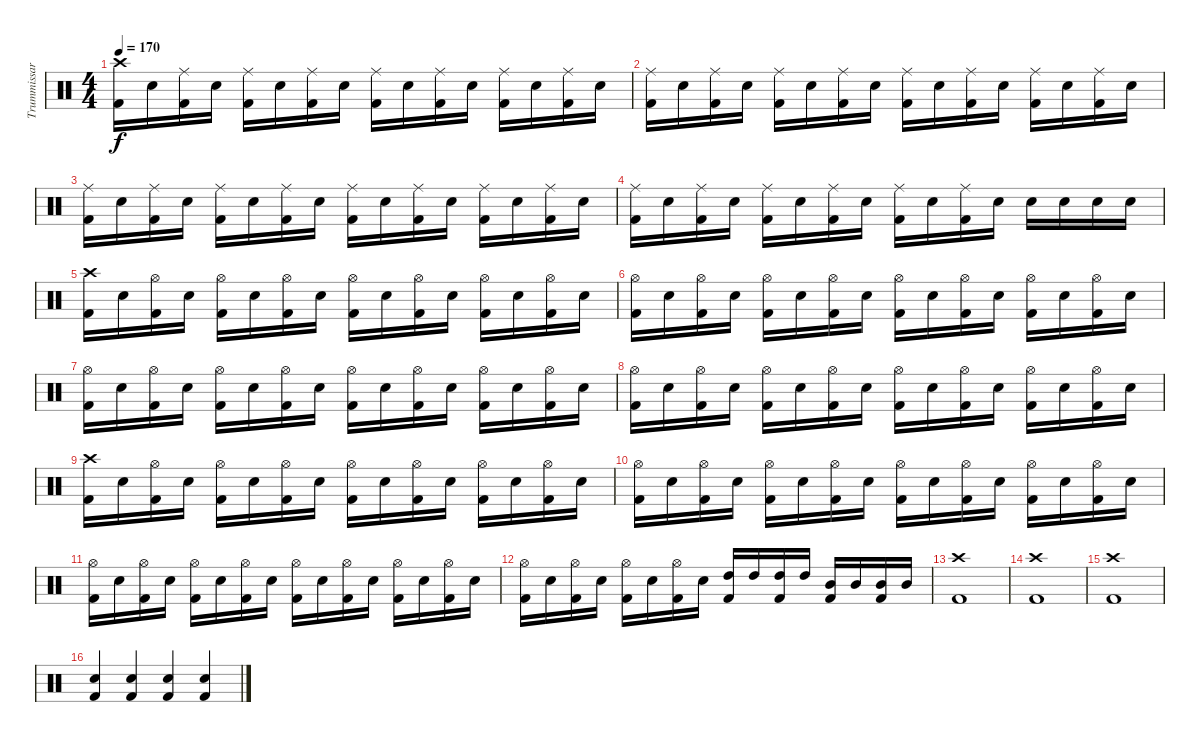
\track ("Trummissar!!" "Trummissar") {instrument percussion}
\staff {score}
\articulation defaults
\ts (4 4)
\tempo 170
\clef neutral
\ks c
("Crash high (hit)" "Kick (hit) 2").16{dy f} "Electric Snare (hit)".16 ("Ride (middle)" "Kick (hit) 2").16 "Electric Snare (hit)".16 ("Ride (middle)" "Kick (hit) 2").16 "Electric Snare (hit)".16 ("Ride (middle)" "Kick (hit) 2").16 "Electric Snare (hit)".16 ("Ride (middle)" "Kick (hit) 2").16 "Electric Snare (hit)".16 ("Ride (middle)" "Kick (hit) 2").16 "Electric Snare (hit)".16 ("Ride (middle)" "Kick (hit) 2").16 "Electric Snare (hit)".16 ("Ride (middle)" "Kick (hit) 2").16 "Electric Snare (hit)".16 |
("Ride (middle)" "Kick (hit) 2").16 "Electric Snare (hit)".16 ("Ride (middle)" "Kick (hit) 2").16 "Electric Snare (hit)".16 ("Ride (middle)" "Kick (hit) 2").16 "Electric Snare (hit)".16 ("Ride (middle)" "Kick (hit) 2").16 "Electric Snare (hit)".16 ("Ride (middle)" "Kick (hit) 2").16 "Electric Snare (hit)".16 ("Ride (middle)" "Kick (hit) 2").16 "Electric Snare (hit)".16 ("Ride (middle)" "Kick (hit) 2").16 "Electric Snare (hit)".16 ("Ride (middle)" "Kick (hit) 2").16 "Electric Snare (hit)".16 |
("Ride (middle)" "Kick (hit) 2").16 "Electric Snare (hit)".16 ("Ride (middle)" "Kick (hit) 2").16 "Electric Snare (hit)".16 ("Ride (middle)" "Kick (hit) 2").16 "Electric Snare (hit)".16 ("Ride (middle)" "Kick (hit) 2").16 "Electric Snare (hit)".16 ("Ride (middle)" "Kick (hit) 2").16 "Electric Snare (hit)".16 ("Ride (middle)" "Kick (hit) 2").16 "Electric Snare (hit)".16 ("Ride (middle)" "Kick (hit) 2").16 "Electric Snare (hit)".16 ("Ride (middle)" "Kick (hit) 2").16 "Electric Snare (hit)".16 |
("Ride (middle)" "Kick (hit) 2").16 "Electric Snare (hit)".16 ("Ride (middle)" "Kick (hit) 2").16 "Electric Snare (hit)".16 ("Ride (middle)" "Kick (hit) 2").16 "Electric Snare (hit)".16 ("Ride (middle)" "Kick (hit) 2").16 "Electric Snare (hit)".16 ("Ride (middle)" "Kick (hit) 2").16 "Electric Snare (hit)".16 ("Ride (middle)" "Kick (hit) 2").16 "Electric Snare (hit)".16 "Electric Snare (hit)".16 "Electric Snare (hit)".16 "Electric Snare (hit)".16 "Electric Snare (hit)".16 |
("Crash high (hit)" "Kick (hit) 2").16 "Electric Snare (hit)".16 ("Hi-Hat (open)" "Kick (hit) 2").16 "Electric Snare (hit)".16 ("Hi-Hat (open)" "Kick (hit) 2").16 "Electric Snare (hit)".16 ("Hi-Hat (open)" "Kick (hit) 2").16 "Electric Snare (hit)".16 ("Hi-Hat (open)" "Kick (hit) 2").16 "Electric Snare (hit)".16 ("Hi-Hat (open)" "Kick (hit) 2").16 "Electric Snare (hit)".16 ("Hi-Hat (open)" "Kick (hit) 2").16 "Electric Snare (hit)".16 ("Hi-Hat (open)" "Kick (hit) 2").16 "Electric Snare (hit)".16 |
("Hi-Hat (open)" "Kick (hit) 2").16 "Electric Snare (hit)".16 ("Hi-Hat (open)" "Kick (hit) 2").16 "Electric Snare (hit)".16 ("Hi-Hat (open)" "Kick (hit) 2").16 "Electric Snare (hit)".16 ("Hi-Hat (open)" "Kick (hit) 2").16 "Electric Snare (hit)".16 ("Hi-Hat (open)" "Kick (hit) 2").16 "Electric Snare (hit)".16 ("Hi-Hat (open)" "Kick (hit) 2").16 "Electric Snare (hit)".16 ("Hi-Hat (open)" "Kick (hit) 2").16 "Electric Snare (hit)".16 ("Hi-Hat (open)" "Kick (hit) 2").16 "Electric Snare (hit)".16 |
("Hi-Hat (open)" "Kick (hit) 2").16 "Electric Snare (hit)".16 ("Hi-Hat (open)" "Kick (hit) 2").16 "Electric Snare (hit)".16 ("Hi-Hat (open)" "Kick (hit) 2").16 "Electric Snare (hit)".16 ("Hi-Hat (open)" "Kick (hit) 2").16 "Electric Snare (hit)".16 ("Hi-Hat (open)" "Kick (hit) 2").16 "Electric Snare (hit)".16 ("Hi-Hat (open)" "Kick (hit) 2").16 "Electric Snare (hit)".16 ("Hi-Hat (open)" "Kick (hit) 2").16 "Electric Snare (hit)".16 ("Hi-Hat (open)" "Kick (hit) 2").16 "Electric Snare (hit)".16 |
("Hi-Hat (open)" "Kick (hit) 2").16 "Electric Snare (hit)".16 ("Hi-Hat (open)" "Kick (hit) 2").16 "Electric Snare (hit)".16 ("Hi-Hat (open)" "Kick (hit) 2").16 "Electric Snare (hit)".16 ("Hi-Hat (open)" "Kick (hit) 2").16 "Electric Snare (hit)".16 ("Hi-Hat (open)" "Kick (hit) 2").16 "Electric Snare (hit)".16 ("Hi-Hat (open)" "Kick (hit) 2").16 "Electric Snare (hit)".16 ("Hi-Hat (open)" "Kick (hit) 2").16 "Electric Snare (hit)".16 ("Hi-Hat (open)" "Kick (hit) 2").16 "Electric Snare (hit)".16 |
("Crash high (hit)" "Kick (hit) 2").16 "Electric Snare (hit)".16 ("Hi-Hat (open)" "Kick (hit) 2").16 "Electric Snare (hit)".16 ("Hi-Hat (open)" "Kick (hit) 2").16 "Electric Snare (hit)".16 ("Hi-Hat (open)" "Kick (hit) 2").16 "Electric Snare (hit)".16 ("Hi-Hat (open)" "Kick (hit) 2").16 "Electric Snare (hit)".16 ("Hi-Hat (open)" "Kick (hit) 2").16 "Electric Snare (hit)".16 ("Hi-Hat (open)" "Kick (hit) 2").16 "Electric Snare (hit)".16 ("Hi-Hat (open)" "Kick (hit) 2").16 "Electric Snare (hit)".16 |
("Hi-Hat (open)" "Kick (hit) 2").16 "Electric Snare (hit)".16 ("Hi-Hat (open)" "Kick (hit) 2").16 "Electric Snare (hit)".16 ("Hi-Hat (open)" "Kick (hit) 2").16 "Electric Snare (hit)".16 ("Hi-Hat (open)" "Kick (hit) 2").16 "Electric Snare (hit)".16 ("Hi-Hat (open)" "Kick (hit) 2").16 "Electric Snare (hit)".16 ("Hi-Hat (open)" "Kick (hit) 2").16 "Electric Snare (hit)".16 ("Hi-Hat (open)" "Kick (hit) 2").16 "Electric Snare (hit)".16 ("Hi-Hat (open)" "Kick (hit) 2").16 "Electric Snare (hit)".16 |
("Hi-Hat (open)" "Kick (hit) 2").16 "Electric Snare (hit)".16 ("Hi-Hat (open)" "Kick (hit) 2").16 "Electric Snare (hit)".16 ("Hi-Hat (open)" "Kick (hit) 2").16 "Electric Snare (hit)".16 ("Hi-Hat (open)" "Kick (hit) 2").16 "Electric Snare (hit)".16 ("Hi-Hat (open)" "Kick (hit) 2").16 "Electric Snare (hit)".16 ("Hi-Hat (open)" "Kick (hit) 2").16 "Electric Snare (hit)".16 ("Hi-Hat (open)" "Kick (hit) 2").16 "Electric Snare (hit)".16 ("Hi-Hat (open)" "Kick (hit) 2").16 "Electric Snare (hit)".16 |
("Hi-Hat (open)" "Kick (hit) 2").16 "Electric Snare (hit)".16 ("Hi-Hat (open)" "Kick (hit) 2").16 "Electric Snare (hit)".16 ("Hi-Hat (open)" "Kick (hit) 2").16 "Electric Snare (hit)".16 ("Hi-Hat (open)" "Kick (hit) 2").16 "Electric Snare (hit)".16 ("High Tom (hit)" "Kick (hit) 2").16 "High Tom (hit)".16 ("High Tom (hit)" "Kick (hit) 2").16 "High Tom (hit)".16 ("Mid Tom (hit)" "Kick (hit) 2").16 "Mid Tom (hit)".16 ("Mid Tom (hit)" "Kick (hit) 2").16 "Mid Tom (hit)".16 |
("Crash high (hit)" "Kick (hit) 2").1 |
("Crash high (hit)" "Kick (hit) 2").1 |
("Crash high (hit)" "Kick (hit) 2").1 |
("Electric Snare (hit)" "Kick (hit) 2").4 ("Electric Snare (hit)" "Kick (hit) 2").4 ("Electric Snare (hit)" "Kick (hit) 2").4 ("Electric Snare (hit)" "Kick (hit) 2").4
